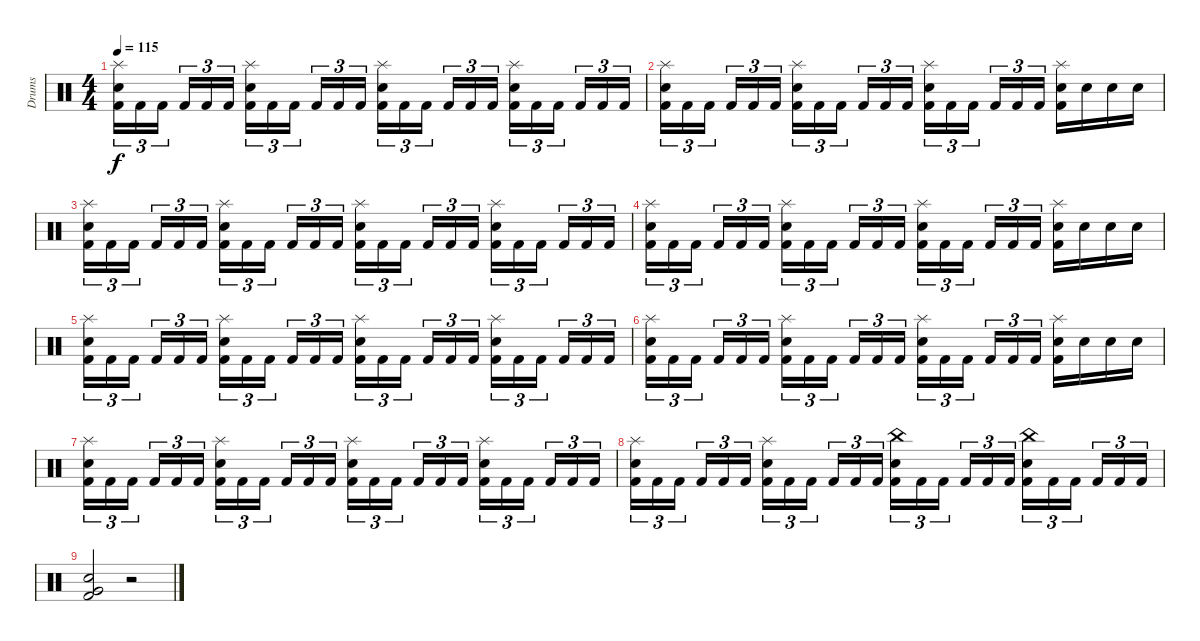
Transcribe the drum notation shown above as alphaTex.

\track ("Drums" "Drums") {instrument percussion}
\staff {score}
\articulation defaults
\ts (4 4)
\tempo 115
\clef neutral
\ks c
("Splash (hit)" "Snare (hit) 2" "Kick (hit) 2").16{tu (3 2) dy f} "Kick (hit) 2".16{tu (3 2)} "Kick (hit) 2".16{tu (3 2) beam splitsecondary} "Kick (hit) 2".16{tu (3 2)} "Kick (hit) 2".16{tu (3 2)} "Kick (hit) 2".16{tu (3 2)} ("Splash (hit)" "Snare (hit) 2" "Kick (hit) 2").16{tu (3 2)} "Kick (hit) 2".16{tu (3 2)} "Kick (hit) 2".16{tu (3 2) beam splitsecondary} "Kick (hit) 2".16{tu (3 2)} "Kick (hit) 2".16{tu (3 2)} "Kick (hit) 2".16{tu (3 2)} ("Splash (hit)" "Snare (hit) 2" "Kick (hit) 2").16{tu (3 2)} "Kick (hit) 2".16{tu (3 2)} "Kick (hit) 2".16{tu (3 2) beam splitsecondary} "Kick (hit) 2".16{tu (3 2)} "Kick (hit) 2".16{tu (3 2)} "Kick (hit) 2".16{tu (3 2)} ("Splash (hit)" "Snare (hit) 2" "Kick (hit) 2").16{tu (3 2)} "Kick (hit) 2".16{tu (3 2)} "Kick (hit) 2".16{tu (3 2) beam splitsecondary} "Kick (hit) 2".16{tu (3 2)} "Kick (hit) 2".16{tu (3 2)} "Kick (hit) 2".16{tu (3 2)} |
("Splash (hit)" "Snare (hit) 2" "Kick (hit) 2").16{tu (3 2)} "Kick (hit) 2".16{tu (3 2)} "Kick (hit) 2".16{tu (3 2) beam splitsecondary} "Kick (hit) 2".16{tu (3 2)} "Kick (hit) 2".16{tu (3 2)} "Kick (hit) 2".16{tu (3 2)} ("Splash (hit)" "Snare (hit) 2" "Kick (hit) 2").16{tu (3 2)} "Kick (hit) 2".16{tu (3 2)} "Kick (hit) 2".16{tu (3 2) beam splitsecondary} "Kick (hit) 2".16{tu (3 2)} "Kick (hit) 2".16{tu (3 2)} "Kick (hit) 2".16{tu (3 2)} ("Splash (hit)" "Snare (hit) 2" "Kick (hit) 2").16{tu (3 2)} "Kick (hit) 2".16{tu (3 2)} "Kick (hit) 2".16{tu (3 2) beam splitsecondary} "Kick (hit) 2".16{tu (3 2)} "Kick (hit) 2".16{tu (3 2)} "Kick (hit) 2".16{tu (3 2)} ("Splash (hit)" "Snare (hit) 2" "Kick (hit) 2").16 "Snare (hit) 2".16 "Snare (hit) 2".16 "Snare (hit) 2".16 |
("Splash (hit)" "Snare (hit) 2" "Kick (hit) 2").16{tu (3 2)} "Kick (hit) 2".16{tu (3 2)} "Kick (hit) 2".16{tu (3 2) beam splitsecondary} "Kick (hit) 2".16{tu (3 2)} "Kick (hit) 2".16{tu (3 2)} "Kick (hit) 2".16{tu (3 2)} ("Splash (hit)" "Snare (hit) 2" "Kick (hit) 2").16{tu (3 2)} "Kick (hit) 2".16{tu (3 2)} "Kick (hit) 2".16{tu (3 2) beam splitsecondary} "Kick (hit) 2".16{tu (3 2)} "Kick (hit) 2".16{tu (3 2)} "Kick (hit) 2".16{tu (3 2)} ("Splash (hit)" "Snare (hit) 2" "Kick (hit) 2").16{tu (3 2)} "Kick (hit) 2".16{tu (3 2)} "Kick (hit) 2".16{tu (3 2) beam splitsecondary} "Kick (hit) 2".16{tu (3 2)} "Kick (hit) 2".16{tu (3 2)} "Kick (hit) 2".16{tu (3 2)} ("Splash (hit)" "Snare (hit) 2" "Kick (hit) 2").16{tu (3 2)} "Kick (hit) 2".16{tu (3 2)} "Kick (hit) 2".16{tu (3 2) beam splitsecondary} "Kick (hit) 2".16{tu (3 2)} "Kick (hit) 2".16{tu (3 2)} "Kick (hit) 2".16{tu (3 2)} |
("Splash (hit)" "Snare (hit) 2" "Kick (hit) 2").16{tu (3 2)} "Kick (hit) 2".16{tu (3 2)} "Kick (hit) 2".16{tu (3 2) beam splitsecondary} "Kick (hit) 2".16{tu (3 2)} "Kick (hit) 2".16{tu (3 2)} "Kick (hit) 2".16{tu (3 2)} ("Splash (hit)" "Snare (hit) 2" "Kick (hit) 2").16{tu (3 2)} "Kick (hit) 2".16{tu (3 2)} "Kick (hit) 2".16{tu (3 2) beam splitsecondary} "Kick (hit) 2".16{tu (3 2)} "Kick (hit) 2".16{tu (3 2)} "Kick (hit) 2".16{tu (3 2)} ("Splash (hit)" "Snare (hit) 2" "Kick (hit) 2").16{tu (3 2)} "Kick (hit) 2".16{tu (3 2)} "Kick (hit) 2".16{tu (3 2) beam splitsecondary} "Kick (hit) 2".16{tu (3 2)} "Kick (hit) 2".16{tu (3 2)} "Kick (hit) 2".16{tu (3 2)} ("Splash (hit)" "Snare (hit) 2" "Kick (hit) 2").16 "Snare (hit) 2".16 "Snare (hit) 2".16 "Snare (hit) 2".16 |
("Splash (hit)" "Snare (hit) 2" "Kick (hit) 2").16{tu (3 2)} "Kick (hit) 2".16{tu (3 2)} "Kick (hit) 2".16{tu (3 2) beam splitsecondary} "Kick (hit) 2".16{tu (3 2)} "Kick (hit) 2".16{tu (3 2)} "Kick (hit) 2".16{tu (3 2)} ("Splash (hit)" "Snare (hit) 2" "Kick (hit) 2").16{tu (3 2)} "Kick (hit) 2".16{tu (3 2)} "Kick (hit) 2".16{tu (3 2) beam splitsecondary} "Kick (hit) 2".16{tu (3 2)} "Kick (hit) 2".16{tu (3 2)} "Kick (hit) 2".16{tu (3 2)} ("Splash (hit)" "Snare (hit) 2" "Kick (hit) 2").16{tu (3 2)} "Kick (hit) 2".16{tu (3 2)} "Kick (hit) 2".16{tu (3 2) beam splitsecondary} "Kick (hit) 2".16{tu (3 2)} "Kick (hit) 2".16{tu (3 2)} "Kick (hit) 2".16{tu (3 2)} ("Splash (hit)" "Snare (hit) 2" "Kick (hit) 2").16{tu (3 2)} "Kick (hit) 2".16{tu (3 2)} "Kick (hit) 2".16{tu (3 2) beam splitsecondary} "Kick (hit) 2".16{tu (3 2)} "Kick (hit) 2".16{tu (3 2)} "Kick (hit) 2".16{tu (3 2)} |
("Splash (hit)" "Snare (hit) 2" "Kick (hit) 2").16{tu (3 2)} "Kick (hit) 2".16{tu (3 2)} "Kick (hit) 2".16{tu (3 2) beam splitsecondary} "Kick (hit) 2".16{tu (3 2)} "Kick (hit) 2".16{tu (3 2)} "Kick (hit) 2".16{tu (3 2)} ("Splash (hit)" "Snare (hit) 2" "Kick (hit) 2").16{tu (3 2)} "Kick (hit) 2".16{tu (3 2)} "Kick (hit) 2".16{tu (3 2) beam splitsecondary} "Kick (hit) 2".16{tu (3 2)} "Kick (hit) 2".16{tu (3 2)} "Kick (hit) 2".16{tu (3 2)} ("Splash (hit)" "Snare (hit) 2" "Kick (hit) 2").16{tu (3 2)} "Kick (hit) 2".16{tu (3 2)} "Kick (hit) 2".16{tu (3 2) beam splitsecondary} "Kick (hit) 2".16{tu (3 2)} "Kick (hit) 2".16{tu (3 2)} "Kick (hit) 2".16{tu (3 2)} ("Splash (hit)" "Snare (hit) 2" "Kick (hit) 2").16 "Snare (hit) 2".16 "Snare (hit) 2".16 "Snare (hit) 2".16 |
("Splash (hit)" "Snare (hit) 2" "Kick (hit) 2").16{tu (3 2)} "Kick (hit) 2".16{tu (3 2)} "Kick (hit) 2".16{tu (3 2) beam splitsecondary} "Kick (hit) 2".16{tu (3 2)} "Kick (hit) 2".16{tu (3 2)} "Kick (hit) 2".16{tu (3 2)} ("Splash (hit)" "Snare (hit) 2" "Kick (hit) 2").16{tu (3 2)} "Kick (hit) 2".16{tu (3 2)} "Kick (hit) 2".16{tu (3 2) beam splitsecondary} "Kick (hit) 2".16{tu (3 2)} "Kick (hit) 2".16{tu (3 2)} "Kick (hit) 2".16{tu (3 2)} ("Splash (hit)" "Snare (hit) 2" "Kick (hit) 2").16{tu (3 2)} "Kick (hit) 2".16{tu (3 2)} "Kick (hit) 2".16{tu (3 2) beam splitsecondary} "Kick (hit) 2".16{tu (3 2)} "Kick (hit) 2".16{tu (3 2)} "Kick (hit) 2".16{tu (3 2)} ("Splash (hit)" "Snare (hit) 2" "Kick (hit) 2").16{tu (3 2)} "Kick (hit) 2".16{tu (3 2)} "Kick (hit) 2".16{tu (3 2) beam splitsecondary} "Kick (hit) 2".16{tu (3 2)} "Kick (hit) 2".16{tu (3 2)} "Kick (hit) 2".16{tu (3 2)} |
("Splash (hit)" "Snare (hit) 2" "Kick (hit) 2").16{tu (3 2)} "Kick (hit) 2".16{tu (3 2)} "Kick (hit) 2".16{tu (3 2) beam splitsecondary} "Kick (hit) 2".16{tu (3 2)} "Kick (hit) 2".16{tu (3 2)} "Kick (hit) 2".16{tu (3 2)} ("Splash (hit)" "Snare (hit) 2" "Kick (hit) 2").16{tu (3 2)} "Kick (hit) 2".16{tu (3 2)} "Kick (hit) 2".16{tu (3 2) beam splitsecondary} "Kick (hit) 2".16{tu (3 2)} "Kick (hit) 2".16{tu (3 2)} "Kick (hit) 2".16{tu (3 2)} ("China (hit)" "Snare (hit) 2" "Kick (hit) 2").16{tu (3 2)} "Kick (hit) 2".16{tu (3 2)} "Kick (hit) 2".16{tu (3 2) beam splitsecondary} "Kick (hit) 2".16{tu (3 2)} "Kick (hit) 2".16{tu (3 2)} "Kick (hit) 2".16{tu (3 2)} ("China (hit)" "Snare (hit) 2" "Kick (hit) 2").16{tu (3 2)} "Kick (hit) 2".16{tu (3 2)} "Kick (hit) 2".16{tu (3 2) beam splitsecondary} "Kick (hit) 2".16{tu (3 2)} "Kick (hit) 2".16{tu (3 2)} "Kick (hit) 2".16{tu (3 2)} |
("Very Low Tom (hit)" "Snare (hit) 2" "Kick (hit) 2").2 r.2
